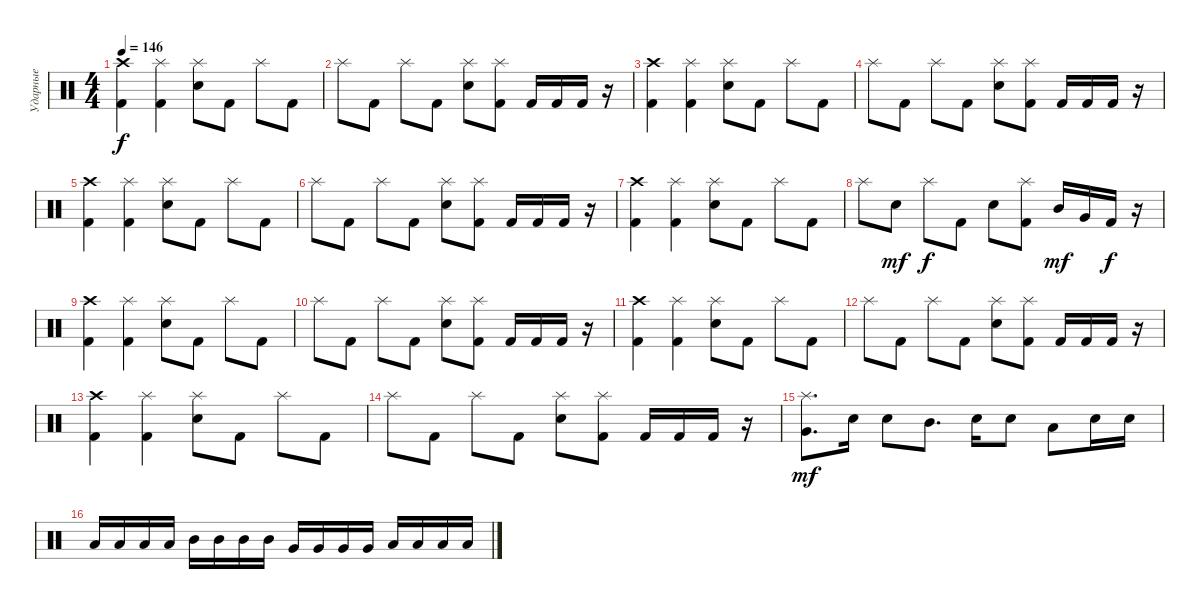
\track ("Ударные" "Ударные") {instrument percussion}
\staff {score}
\articulation defaults
\ts (4 4)
\tempo 146
\clef neutral
\ks c
("Crash high (hit)" "Kick (hit) 2").4{dy f} ("Splash (hit)" "Kick (hit) 2").4 ("Splash (hit)" "Snare (hit) 2").8 "Kick (hit) 2".8 "Splash (hit)".8 "Kick (hit) 2".8 |
"Splash (hit)".8 "Kick (hit) 2".8 "Splash (hit)".8 "Kick (hit) 2".8 ("Splash (hit)" "Snare (hit) 2").8 ("Splash (hit)" "Kick (hit) 2").8 "Kick (hit) 2".16 "Kick (hit) 2".16 "Kick (hit) 2".16 r.16 |
("Crash high (hit)" "Kick (hit) 2").4 ("Splash (hit)" "Kick (hit) 2").4 ("Splash (hit)" "Snare (hit) 2").8 "Kick (hit) 2".8 "Splash (hit)".8 "Kick (hit) 2".8 |
"Splash (hit)".8 "Kick (hit) 2".8 "Splash (hit)".8 "Kick (hit) 2".8 ("Splash (hit)" "Snare (hit) 2").8 ("Splash (hit)" "Kick (hit) 2").8 "Kick (hit) 2".16 "Kick (hit) 2".16 "Kick (hit) 2".16 r.16 |
("Crash high (hit)" "Kick (hit) 2").4 ("Splash (hit)" "Kick (hit) 2").4 ("Splash (hit)" "Snare (hit) 2").8 "Kick (hit) 2".8 "Splash (hit)".8 "Kick (hit) 2".8 |
"Splash (hit)".8 "Kick (hit) 2".8 "Splash (hit)".8 "Kick (hit) 2".8 ("Splash (hit)" "Snare (hit) 2").8 ("Splash (hit)" "Kick (hit) 2").8 "Kick (hit) 2".16 "Kick (hit) 2".16 "Kick (hit) 2".16 r.16 |
("Crash high (hit)" "Kick (hit) 2").4 ("Splash (hit)" "Kick (hit) 2").4 ("Splash (hit)" "Snare (hit) 2").8 "Kick (hit) 2".8 "Splash (hit)".8 "Kick (hit) 2".8 |
"Splash (hit)".8 "Snare (hit) 2".8{dy mf} "Splash (hit)".8{dy f} "Kick (hit) 2".8 "Snare (hit) 2".8 ("Splash (hit)" "Kick (hit) 2").8 "Mid Tom (hit)".16{dy mf} "Very Low Tom (hit)".16 "Kick (hit) 2".16{dy f} r.16 |
("Crash high (hit)" "Kick (hit) 2").4 ("Splash (hit)" "Kick (hit) 2").4 ("Splash (hit)" "Snare (hit) 2").8 "Kick (hit) 2".8 "Splash (hit)".8 "Kick (hit) 2".8 |
"Splash (hit)".8 "Kick (hit) 2".8 "Splash (hit)".8 "Kick (hit) 2".8 ("Splash (hit)" "Snare (hit) 2").8 ("Splash (hit)" "Kick (hit) 2").8 "Kick (hit) 2".16 "Kick (hit) 2".16 "Kick (hit) 2".16 r.16 |
("Crash high (hit)" "Kick (hit) 2").4 ("Splash (hit)" "Kick (hit) 2").4 ("Splash (hit)" "Snare (hit) 2").8 "Kick (hit) 2".8 "Splash (hit)".8 "Kick (hit) 2".8 |
"Splash (hit)".8 "Kick (hit) 2".8 "Splash (hit)".8 "Kick (hit) 2".8 ("Splash (hit)" "Snare (hit) 2").8 ("Splash (hit)" "Kick (hit) 2").8 "Kick (hit) 2".16 "Kick (hit) 2".16 "Kick (hit) 2".16 r.16 |
("Crash high (hit)" "Kick (hit) 2").4 ("Splash (hit)" "Kick (hit) 2").4 ("Splash (hit)" "Snare (hit) 2").8 "Kick (hit) 2".8 "Splash (hit)".8 "Kick (hit) 2".8 |
"Splash (hit)".8 "Kick (hit) 2".8 "Splash (hit)".8 "Kick (hit) 2".8 ("Splash (hit)" "Snare (hit) 2").8 ("Splash (hit)" "Kick (hit) 2").8 "Kick (hit) 2".16 "Kick (hit) 2".16 "Kick (hit) 2".16 r.16 |
("Splash (hit)" "Very Low Tom (hit)").8{d dy mf} "Snare (hit) 2".16 "Snare (hit) 2".8 "Mid Tom (hit)".8{d} "Snare (hit) 2".16 "Snare (hit) 2".8 "Low Tom (hit)".8 "Snare (hit) 2".16 "Snare (hit) 2".16 |
"Low Tom (hit)".16 "Low Tom (hit)".16 "Low Tom (hit)".16 "Low Tom (hit)".16 "Mid Tom (hit)".16 "Mid Tom (hit)".16 "Mid Tom (hit)".16 "Mid Tom (hit)".16 "Very Low Tom (hit)".16 "Very Low Tom (hit)".16 "Very Low Tom (hit)".16 "Very Low Tom (hit)".16 "Low Floor Tom (hit)".16 "Low Floor Tom (hit)".16 "Low Floor Tom (hit)".16 "Low Floor Tom (hit)".16
